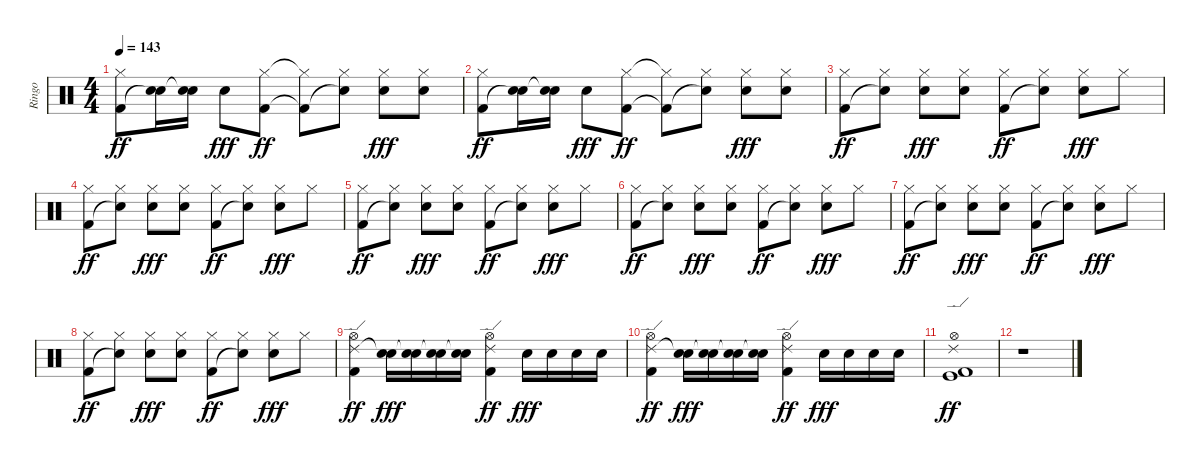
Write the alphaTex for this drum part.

\track ("Ringo" "Ringo") {instrument percussion}
\staff {score}
\articulation defaults
\ts (4 4)
\tempo 143
\clef neutral
\ks c
("Hi-Hat (closed)" "Kick (hit) 2").8{dy ff} ("Snare (hit) 2" "Snare (hit)"{t}).16 ("Snare (hit) 2" "Snare (hit)"{t}).16 "Snare (hit) 2".8{dy fff} ("Hi-Hat (closed)" "Kick (hit) 2").8{dy ff} ("Hi-Hat (closed)"{t} "Kick (hit) 2"{t}).8 ("Hi-Hat (closed)" "Snare (hit)"{t}).8 ("Hi-Hat (closed)" "Snare (hit) 2").8{dy fff} ("Hi-Hat (closed)" "Snare (hit) 2").8 |
("Hi-Hat (closed)" "Kick (hit) 2").8{dy ff} ("Snare (hit) 2" "Snare (hit)"{t}).16 ("Snare (hit) 2" "Snare (hit)"{t}).16 "Snare (hit) 2".8{dy fff} ("Hi-Hat (closed)" "Kick (hit) 2").8{dy ff} ("Hi-Hat (closed)"{t} "Kick (hit) 2"{t}).8 ("Hi-Hat (closed)" "Snare (hit)"{t}).8 ("Hi-Hat (closed)" "Snare (hit) 2").8{dy fff} ("Hi-Hat (closed)" "Snare (hit) 2").8 |
("Hi-Hat (closed)" "Kick (hit) 2").8{dy ff} ("Hi-Hat (closed)" "Snare (hit)"{t}).8 ("Hi-Hat (closed)" "Snare (hit) 2").8{dy fff} ("Hi-Hat (closed)" "Snare (hit) 2").8 ("Hi-Hat (closed)" "Kick (hit) 2").8{dy ff} ("Hi-Hat (closed)" "Snare (hit)"{t}).8 ("Hi-Hat (closed)" "Snare (hit) 2").8{dy fff} "Hi-Hat (closed)".8 |
("Hi-Hat (closed)" "Kick (hit) 2").8{dy ff} ("Hi-Hat (closed)" "Snare (hit)"{t}).8 ("Hi-Hat (closed)" "Snare (hit) 2").8{dy fff} ("Hi-Hat (closed)" "Snare (hit) 2").8 ("Hi-Hat (closed)" "Kick (hit) 2").8{dy ff} ("Hi-Hat (closed)" "Snare (hit)"{t}).8 ("Hi-Hat (closed)" "Snare (hit) 2").8{dy fff} "Hi-Hat (closed)".8 |
("Hi-Hat (closed)" "Kick (hit) 2").8{dy ff} ("Hi-Hat (closed)" "Snare (hit)"{t}).8 ("Hi-Hat (closed)" "Snare (hit) 2").8{dy fff} ("Hi-Hat (closed)" "Snare (hit) 2").8 ("Hi-Hat (closed)" "Kick (hit) 2").8{dy ff} ("Hi-Hat (closed)" "Snare (hit)"{t}).8 ("Hi-Hat (closed)" "Snare (hit) 2").8{dy fff} "Hi-Hat (closed)".8 |
("Hi-Hat (closed)" "Kick (hit) 2").8{dy ff} ("Hi-Hat (closed)" "Snare (hit)"{t}).8 ("Hi-Hat (closed)" "Snare (hit) 2").8{dy fff} ("Hi-Hat (closed)" "Snare (hit) 2").8 ("Hi-Hat (closed)" "Kick (hit) 2").8{dy ff} ("Hi-Hat (closed)" "Snare (hit)"{t}).8 ("Hi-Hat (closed)" "Snare (hit) 2").8{dy fff} "Hi-Hat (closed)".8 |
("Hi-Hat (closed)" "Kick (hit) 2").8{dy ff} ("Hi-Hat (closed)" "Snare (hit)"{t}).8 ("Hi-Hat (closed)" "Snare (hit) 2").8{dy fff} ("Hi-Hat (closed)" "Snare (hit) 2").8 ("Hi-Hat (closed)" "Kick (hit) 2").8{dy ff} ("Hi-Hat (closed)" "Snare (hit)"{t}).8 ("Hi-Hat (closed)" "Snare (hit) 2").8{dy fff} "Hi-Hat (closed)".8 |
("Hi-Hat (closed)" "Kick (hit) 2").8{dy ff} ("Hi-Hat (closed)" "Snare (hit)"{t}).8 ("Hi-Hat (closed)" "Snare (hit) 2").8{dy fff} ("Hi-Hat (closed)" "Snare (hit) 2").8 ("Hi-Hat (closed)" "Kick (hit) 2").8{dy ff} ("Hi-Hat (closed)" "Snare (hit)"{t}).8 ("Hi-Hat (closed)" "Snare (hit) 2").8{dy fff} "Hi-Hat (closed)".8 |
("Ride (edge) 2" "Hi-Hat (open)" "Kick (hit) 2").4{dy ff} ("Snare (hit)"{t} "Snare (hit) 2").16{dy fff} ("Snare (hit)"{t} "Snare (hit) 2").16 ("Snare (hit)"{t} "Snare (hit) 2").16 ("Snare (hit)"{t} "Snare (hit) 2").16 ("Ride (edge) 2" "Hi-Hat (open)" "Kick (hit) 2").4{dy ff} "Snare (hit) 2".16{dy fff} "Snare (hit) 2".16 "Snare (hit) 2".16 "Snare (hit) 2".16 |
("Ride (edge) 2" "Hi-Hat (open)" "Kick (hit) 2").4{dy ff} ("Snare (hit)"{t} "Snare (hit) 2").16{dy fff} ("Snare (hit)"{t} "Snare (hit) 2").16 ("Snare (hit)"{t} "Snare (hit) 2").16 ("Snare (hit)"{t} "Snare (hit) 2").16 ("Ride (edge) 2" "Hi-Hat (open)" "Kick (hit) 2").4{dy ff} "Snare (hit) 2".16{dy fff} "Snare (hit) 2".16 "Snare (hit) 2".16 "Snare (hit) 2".16 |
("Ride (edge) 2" "Hi-Hat (open)" "Kick (hit) 2" "Kick (hit)").1{dy ff} |
r.1
